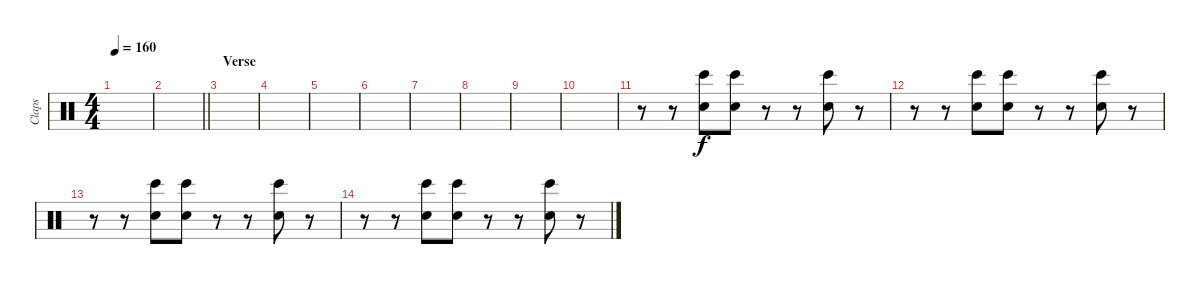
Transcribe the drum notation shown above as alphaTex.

\track ("Claps" "Claps") {instrument percussion}
\staff {score}
\articulation defaults
\ts (4 4)
\tempo 160
\clef neutral
\ks c
|
\barLineRight lightlight
|
\section ("" "Verse")
|
|
|
|
|
|
|
|
r.8 r.8 ("Hand Clap (hit)" "Bongo High (hit)").8 ("Hand Clap (hit)" "Bongo High (hit)").8 r.8 r.8 ("Hand Clap (hit)" "Bongo High (hit)").8 r.8 |
r.8 r.8 ("Hand Clap (hit)" "Bongo High (hit)").8 ("Hand Clap (hit)" "Bongo High (hit)").8 r.8 r.8 ("Hand Clap (hit)" "Bongo High (hit)").8 r.8 |
r.8 r.8 ("Hand Clap (hit)" "Bongo High (hit)").8 ("Hand Clap (hit)" "Bongo High (hit)").8 r.8 r.8 ("Hand Clap (hit)" "Bongo High (hit)").8 r.8 |
r.8 r.8 ("Hand Clap (hit)" "Bongo High (hit)").8 ("Hand Clap (hit)" "Bongo High (hit)").8 r.8 r.8 ("Hand Clap (hit)" "Bongo High (hit)").8 r.8
